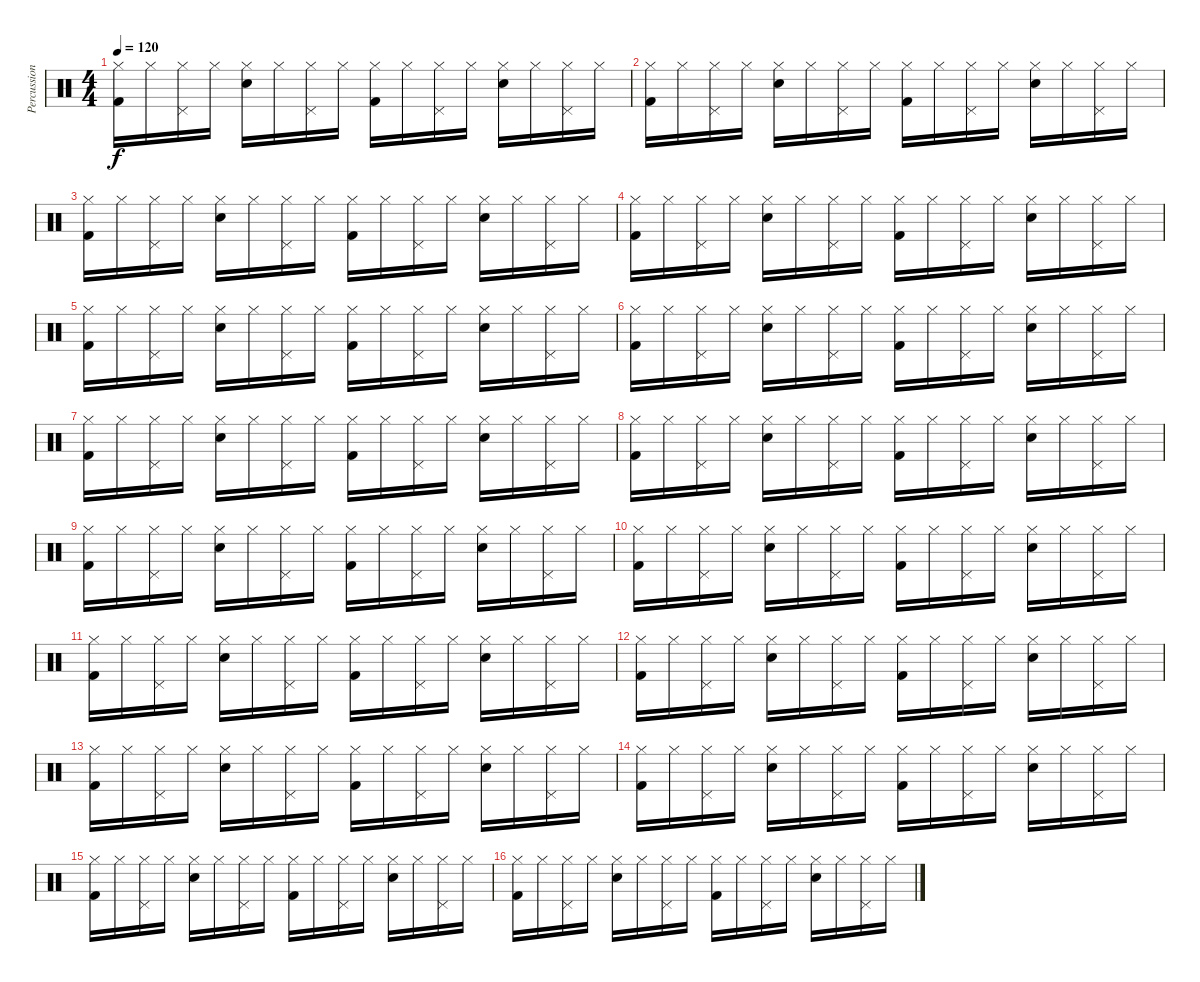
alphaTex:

\track ("Percussion" "Percussion") {instrument percussion}
\staff {score}
\articulation defaults
\ts (4 4)
\tempo 120
\clef neutral
\ks c
("Hi-Hat (closed)" "Kick (hit) 2").16{dy f} "Hi-Hat (closed)".16 ("Hi-Hat (closed)" "Pedal Hi-Hat (hit)").16 "Hi-Hat (closed)".16 ("Hi-Hat (closed)" "Snare (hit) 2").16 "Hi-Hat (closed)".16 ("Hi-Hat (closed)" "Pedal Hi-Hat (hit)").16 "Hi-Hat (closed)".16 ("Hi-Hat (closed)" "Kick (hit) 2").16 "Hi-Hat (closed)".16 ("Hi-Hat (closed)" "Pedal Hi-Hat (hit)").16 "Hi-Hat (closed)".16 ("Hi-Hat (closed)" "Snare (hit) 2").16 "Hi-Hat (closed)".16 ("Hi-Hat (closed)" "Pedal Hi-Hat (hit)").16 "Hi-Hat (closed)".16 |
("Hi-Hat (closed)" "Kick (hit) 2").16 "Hi-Hat (closed)".16 ("Hi-Hat (closed)" "Pedal Hi-Hat (hit)").16 "Hi-Hat (closed)".16 ("Hi-Hat (closed)" "Snare (hit) 2").16 "Hi-Hat (closed)".16 ("Hi-Hat (closed)" "Pedal Hi-Hat (hit)").16 "Hi-Hat (closed)".16 ("Hi-Hat (closed)" "Kick (hit) 2").16 "Hi-Hat (closed)".16 ("Hi-Hat (closed)" "Pedal Hi-Hat (hit)").16 "Hi-Hat (closed)".16 ("Hi-Hat (closed)" "Snare (hit) 2").16 "Hi-Hat (closed)".16 ("Hi-Hat (closed)" "Pedal Hi-Hat (hit)").16 "Hi-Hat (closed)".16 |
("Hi-Hat (closed)" "Kick (hit) 2").16 "Hi-Hat (closed)".16 ("Hi-Hat (closed)" "Pedal Hi-Hat (hit)").16 "Hi-Hat (closed)".16 ("Hi-Hat (closed)" "Snare (hit) 2").16 "Hi-Hat (closed)".16 ("Hi-Hat (closed)" "Pedal Hi-Hat (hit)").16 "Hi-Hat (closed)".16 ("Hi-Hat (closed)" "Kick (hit) 2").16 "Hi-Hat (closed)".16 ("Hi-Hat (closed)" "Pedal Hi-Hat (hit)").16 "Hi-Hat (closed)".16 ("Hi-Hat (closed)" "Snare (hit) 2").16 "Hi-Hat (closed)".16 ("Hi-Hat (closed)" "Pedal Hi-Hat (hit)").16 "Hi-Hat (closed)".16 |
("Hi-Hat (closed)" "Kick (hit) 2").16 "Hi-Hat (closed)".16 ("Hi-Hat (closed)" "Pedal Hi-Hat (hit)").16 "Hi-Hat (closed)".16 ("Hi-Hat (closed)" "Snare (hit) 2").16 "Hi-Hat (closed)".16 ("Hi-Hat (closed)" "Pedal Hi-Hat (hit)").16 "Hi-Hat (closed)".16 ("Hi-Hat (closed)" "Kick (hit) 2").16 "Hi-Hat (closed)".16 ("Hi-Hat (closed)" "Pedal Hi-Hat (hit)").16 "Hi-Hat (closed)".16 ("Hi-Hat (closed)" "Snare (hit) 2").16 "Hi-Hat (closed)".16 ("Hi-Hat (closed)" "Pedal Hi-Hat (hit)").16 "Hi-Hat (closed)".16 |
("Hi-Hat (closed)" "Kick (hit) 2").16 "Hi-Hat (closed)".16 ("Hi-Hat (closed)" "Pedal Hi-Hat (hit)").16 "Hi-Hat (closed)".16 ("Hi-Hat (closed)" "Snare (hit) 2").16 "Hi-Hat (closed)".16 ("Hi-Hat (closed)" "Pedal Hi-Hat (hit)").16 "Hi-Hat (closed)".16 ("Hi-Hat (closed)" "Kick (hit) 2").16 "Hi-Hat (closed)".16 ("Hi-Hat (closed)" "Pedal Hi-Hat (hit)").16 "Hi-Hat (closed)".16 ("Hi-Hat (closed)" "Snare (hit) 2").16 "Hi-Hat (closed)".16 ("Hi-Hat (closed)" "Pedal Hi-Hat (hit)").16 "Hi-Hat (closed)".16 |
("Hi-Hat (closed)" "Kick (hit) 2").16 "Hi-Hat (closed)".16 ("Hi-Hat (closed)" "Pedal Hi-Hat (hit)").16 "Hi-Hat (closed)".16 ("Hi-Hat (closed)" "Snare (hit) 2").16 "Hi-Hat (closed)".16 ("Hi-Hat (closed)" "Pedal Hi-Hat (hit)").16 "Hi-Hat (closed)".16 ("Hi-Hat (closed)" "Kick (hit) 2").16 "Hi-Hat (closed)".16 ("Hi-Hat (closed)" "Pedal Hi-Hat (hit)").16 "Hi-Hat (closed)".16 ("Hi-Hat (closed)" "Snare (hit) 2").16 "Hi-Hat (closed)".16 ("Hi-Hat (closed)" "Pedal Hi-Hat (hit)").16 "Hi-Hat (closed)".16 |
("Hi-Hat (closed)" "Kick (hit) 2").16 "Hi-Hat (closed)".16 ("Hi-Hat (closed)" "Pedal Hi-Hat (hit)").16 "Hi-Hat (closed)".16 ("Hi-Hat (closed)" "Snare (hit) 2").16 "Hi-Hat (closed)".16 ("Hi-Hat (closed)" "Pedal Hi-Hat (hit)").16 "Hi-Hat (closed)".16 ("Hi-Hat (closed)" "Kick (hit) 2").16 "Hi-Hat (closed)".16 ("Hi-Hat (closed)" "Pedal Hi-Hat (hit)").16 "Hi-Hat (closed)".16 ("Hi-Hat (closed)" "Snare (hit) 2").16 "Hi-Hat (closed)".16 ("Hi-Hat (closed)" "Pedal Hi-Hat (hit)").16 "Hi-Hat (closed)".16 |
("Hi-Hat (closed)" "Kick (hit) 2").16 "Hi-Hat (closed)".16 ("Hi-Hat (closed)" "Pedal Hi-Hat (hit)").16 "Hi-Hat (closed)".16 ("Hi-Hat (closed)" "Snare (hit) 2").16 "Hi-Hat (closed)".16 ("Hi-Hat (closed)" "Pedal Hi-Hat (hit)").16 "Hi-Hat (closed)".16 ("Hi-Hat (closed)" "Kick (hit) 2").16 "Hi-Hat (closed)".16 ("Hi-Hat (closed)" "Pedal Hi-Hat (hit)").16 "Hi-Hat (closed)".16 ("Hi-Hat (closed)" "Snare (hit) 2").16 "Hi-Hat (closed)".16 ("Hi-Hat (closed)" "Pedal Hi-Hat (hit)").16 "Hi-Hat (closed)".16 |
("Hi-Hat (closed)" "Kick (hit) 2").16 "Hi-Hat (closed)".16 ("Hi-Hat (closed)" "Pedal Hi-Hat (hit)").16 "Hi-Hat (closed)".16 ("Hi-Hat (closed)" "Snare (hit) 2").16 "Hi-Hat (closed)".16 ("Hi-Hat (closed)" "Pedal Hi-Hat (hit)").16 "Hi-Hat (closed)".16 ("Hi-Hat (closed)" "Kick (hit) 2").16 "Hi-Hat (closed)".16 ("Hi-Hat (closed)" "Pedal Hi-Hat (hit)").16 "Hi-Hat (closed)".16 ("Hi-Hat (closed)" "Snare (hit) 2").16 "Hi-Hat (closed)".16 ("Hi-Hat (closed)" "Pedal Hi-Hat (hit)").16 "Hi-Hat (closed)".16 |
("Hi-Hat (closed)" "Kick (hit) 2").16 "Hi-Hat (closed)".16 ("Hi-Hat (closed)" "Pedal Hi-Hat (hit)").16 "Hi-Hat (closed)".16 ("Hi-Hat (closed)" "Snare (hit) 2").16 "Hi-Hat (closed)".16 ("Hi-Hat (closed)" "Pedal Hi-Hat (hit)").16 "Hi-Hat (closed)".16 ("Hi-Hat (closed)" "Kick (hit) 2").16 "Hi-Hat (closed)".16 ("Hi-Hat (closed)" "Pedal Hi-Hat (hit)").16 "Hi-Hat (closed)".16 ("Hi-Hat (closed)" "Snare (hit) 2").16 "Hi-Hat (closed)".16 ("Hi-Hat (closed)" "Pedal Hi-Hat (hit)").16 "Hi-Hat (closed)".16 |
("Hi-Hat (closed)" "Kick (hit) 2").16 "Hi-Hat (closed)".16 ("Hi-Hat (closed)" "Pedal Hi-Hat (hit)").16 "Hi-Hat (closed)".16 ("Hi-Hat (closed)" "Snare (hit) 2").16 "Hi-Hat (closed)".16 ("Hi-Hat (closed)" "Pedal Hi-Hat (hit)").16 "Hi-Hat (closed)".16 ("Hi-Hat (closed)" "Kick (hit) 2").16 "Hi-Hat (closed)".16 ("Hi-Hat (closed)" "Pedal Hi-Hat (hit)").16 "Hi-Hat (closed)".16 ("Hi-Hat (closed)" "Snare (hit) 2").16 "Hi-Hat (closed)".16 ("Hi-Hat (closed)" "Pedal Hi-Hat (hit)").16 "Hi-Hat (closed)".16 |
("Hi-Hat (closed)" "Kick (hit) 2").16 "Hi-Hat (closed)".16 ("Hi-Hat (closed)" "Pedal Hi-Hat (hit)").16 "Hi-Hat (closed)".16 ("Hi-Hat (closed)" "Snare (hit) 2").16 "Hi-Hat (closed)".16 ("Hi-Hat (closed)" "Pedal Hi-Hat (hit)").16 "Hi-Hat (closed)".16 ("Hi-Hat (closed)" "Kick (hit) 2").16 "Hi-Hat (closed)".16 ("Hi-Hat (closed)" "Pedal Hi-Hat (hit)").16 "Hi-Hat (closed)".16 ("Hi-Hat (closed)" "Snare (hit) 2").16 "Hi-Hat (closed)".16 ("Hi-Hat (closed)" "Pedal Hi-Hat (hit)").16 "Hi-Hat (closed)".16 |
("Hi-Hat (closed)" "Kick (hit) 2").16 "Hi-Hat (closed)".16 ("Hi-Hat (closed)" "Pedal Hi-Hat (hit)").16 "Hi-Hat (closed)".16 ("Hi-Hat (closed)" "Snare (hit) 2").16 "Hi-Hat (closed)".16 ("Hi-Hat (closed)" "Pedal Hi-Hat (hit)").16 "Hi-Hat (closed)".16 ("Hi-Hat (closed)" "Kick (hit) 2").16 "Hi-Hat (closed)".16 ("Hi-Hat (closed)" "Pedal Hi-Hat (hit)").16 "Hi-Hat (closed)".16 ("Hi-Hat (closed)" "Snare (hit) 2").16 "Hi-Hat (closed)".16 ("Hi-Hat (closed)" "Pedal Hi-Hat (hit)").16 "Hi-Hat (closed)".16 |
("Hi-Hat (closed)" "Kick (hit) 2").16 "Hi-Hat (closed)".16 ("Hi-Hat (closed)" "Pedal Hi-Hat (hit)").16 "Hi-Hat (closed)".16 ("Hi-Hat (closed)" "Snare (hit) 2").16 "Hi-Hat (closed)".16 ("Hi-Hat (closed)" "Pedal Hi-Hat (hit)").16 "Hi-Hat (closed)".16 ("Hi-Hat (closed)" "Kick (hit) 2").16 "Hi-Hat (closed)".16 ("Hi-Hat (closed)" "Pedal Hi-Hat (hit)").16 "Hi-Hat (closed)".16 ("Hi-Hat (closed)" "Snare (hit) 2").16 "Hi-Hat (closed)".16 ("Hi-Hat (closed)" "Pedal Hi-Hat (hit)").16 "Hi-Hat (closed)".16 |
("Hi-Hat (closed)" "Kick (hit) 2").16 "Hi-Hat (closed)".16 ("Hi-Hat (closed)" "Pedal Hi-Hat (hit)").16 "Hi-Hat (closed)".16 ("Hi-Hat (closed)" "Snare (hit) 2").16 "Hi-Hat (closed)".16 ("Hi-Hat (closed)" "Pedal Hi-Hat (hit)").16 "Hi-Hat (closed)".16 ("Hi-Hat (closed)" "Kick (hit) 2").16 "Hi-Hat (closed)".16 ("Hi-Hat (closed)" "Pedal Hi-Hat (hit)").16 "Hi-Hat (closed)".16 ("Hi-Hat (closed)" "Snare (hit) 2").16 "Hi-Hat (closed)".16 ("Hi-Hat (closed)" "Pedal Hi-Hat (hit)").16 "Hi-Hat (closed)".16 |
("Hi-Hat (closed)" "Kick (hit) 2").16 "Hi-Hat (closed)".16 ("Hi-Hat (closed)" "Pedal Hi-Hat (hit)").16 "Hi-Hat (closed)".16 ("Hi-Hat (closed)" "Snare (hit) 2").16 "Hi-Hat (closed)".16 ("Hi-Hat (closed)" "Pedal Hi-Hat (hit)").16 "Hi-Hat (closed)".16 ("Hi-Hat (closed)" "Kick (hit) 2").16 "Hi-Hat (closed)".16 ("Hi-Hat (closed)" "Pedal Hi-Hat (hit)").16 "Hi-Hat (closed)".16 ("Hi-Hat (closed)" "Snare (hit) 2").16 "Hi-Hat (closed)".16 ("Hi-Hat (closed)" "Pedal Hi-Hat (hit)").16 "Hi-Hat (closed)".16
